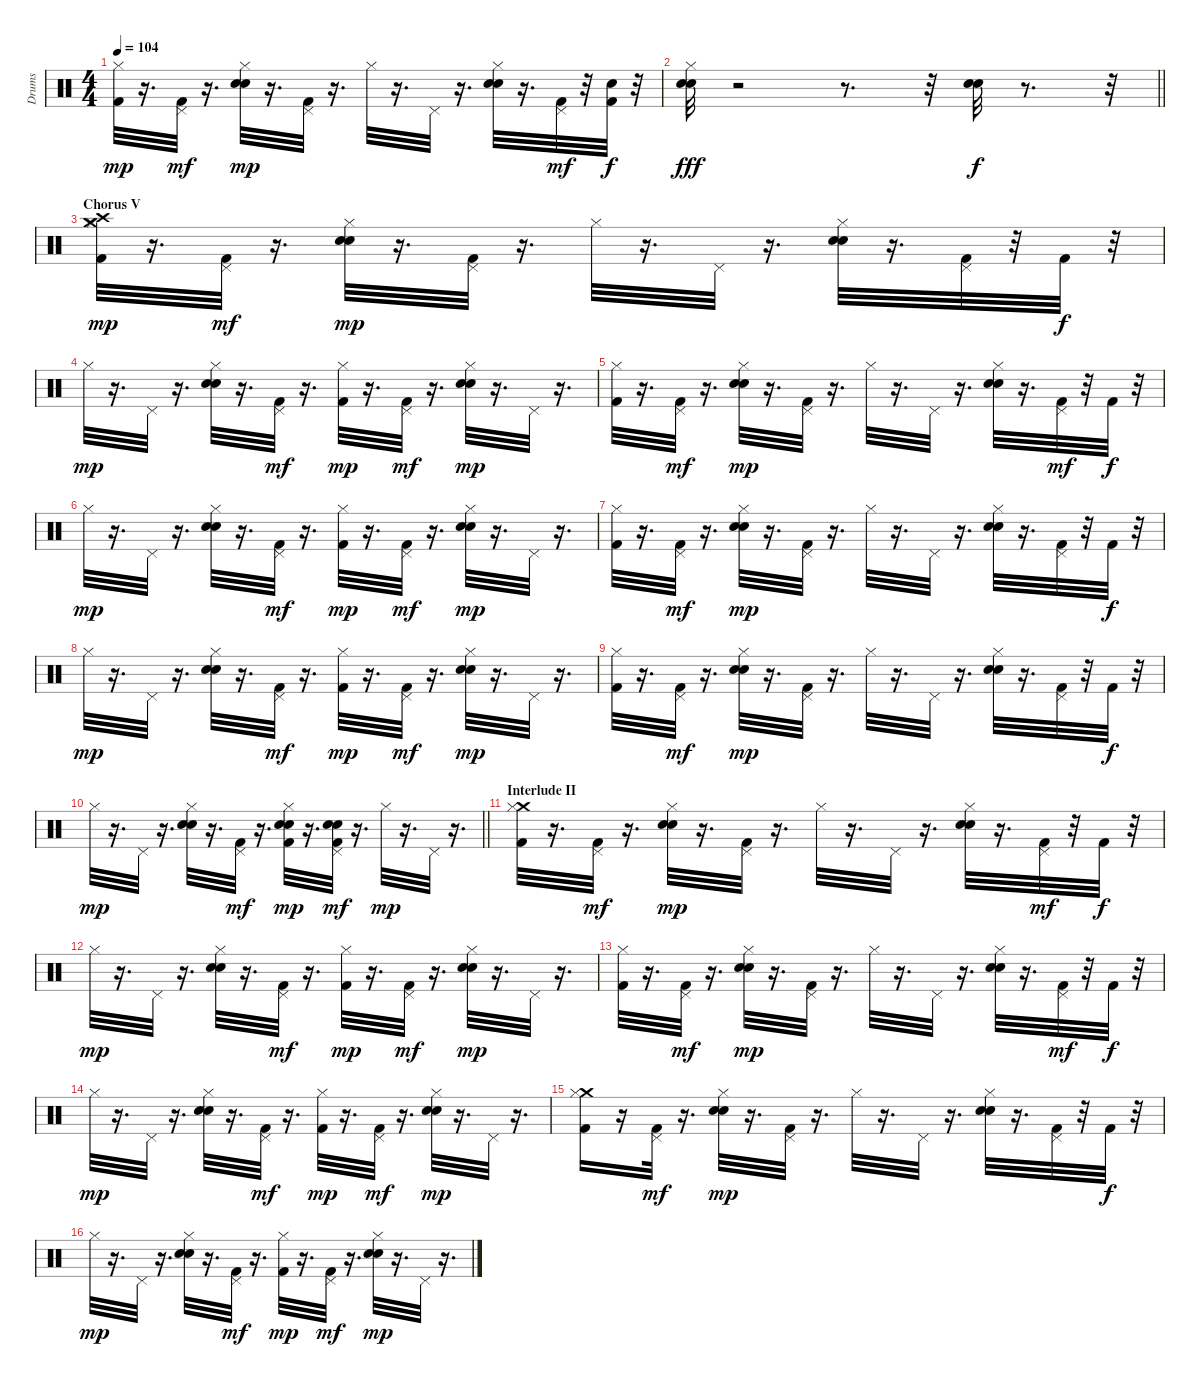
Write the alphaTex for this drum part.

\track ("Drums" "Drums") {instrument percussion}
\staff {score}
\articulation defaults
\ts (4 4)
\tempo 104
\clef neutral
\ks c
("Hi-Hat (closed)" "Kick (hit) 2").32{dy mp} r.16{d} ("Pedal Hi-Hat (hit)" "Kick (hit) 2").32{dy mf} r.16{d} ("Hi-Hat (closed)" "Electric Snare (hit)" "Hand Clap (hit)").32{dy mp} r.16{d} ("Pedal Hi-Hat (hit)" "Kick (hit) 2").32 r.16{d} "Hi-Hat (closed)".32 r.16{d} "Pedal Hi-Hat (hit)".32 r.16{d} ("Hi-Hat (closed)" "Electric Snare (hit)" "Hand Clap (hit)").32 r.16{d} ("Pedal Hi-Hat (hit)" "Kick (hit) 2").32{dy mf} r.32 ("Electric Snare (hit)" "Kick (hit) 2").32{dy f} r.32 |
\barLineRight lightlight
("Hi-Hat (closed)" "Electric Snare (hit)" "Hand Clap (hit)").32{dy fff} r.2 r.8{d} r.32 ("Electric Snare (hit)" "Hand Clap (hit)").32{dy f} r.8{d} r.32 |
\section ("" "Chorus V")
("Crash high (hit)" "Crash medium (hit)" "Hi-Hat (closed)" "Kick (hit) 2").32{dy mp} r.16{d} ("Pedal Hi-Hat (hit)" "Kick (hit) 2").32{dy mf} r.16{d} ("Hi-Hat (closed)" "Electric Snare (hit)" "Hand Clap (hit)").32{dy mp} r.16{d} ("Pedal Hi-Hat (hit)" "Kick (hit) 2").32 r.16{d} "Hi-Hat (closed)".32 r.16{d} "Pedal Hi-Hat (hit)".32 r.16{d} ("Hi-Hat (closed)" "Electric Snare (hit)" "Hand Clap (hit)").32 r.16{d} ("Pedal Hi-Hat (hit)" "Kick (hit) 2").32 r.32 "Kick (hit) 2".32{dy f} r.32 |
"Hi-Hat (closed)".32{dy mp} r.16{d} "Pedal Hi-Hat (hit)".32 r.16{d} ("Hi-Hat (closed)" "Electric Snare (hit)" "Hand Clap (hit)").32 r.16{d} ("Pedal Hi-Hat (hit)" "Kick (hit) 2").32{dy mf} r.16{d} ("Hi-Hat (closed)" "Kick (hit) 2").32{dy mp} r.16{d} ("Pedal Hi-Hat (hit)" "Kick (hit) 2").32{dy mf} r.16{d} ("Hi-Hat (closed)" "Electric Snare (hit)" "Hand Clap (hit)").32{dy mp} r.16{d} "Pedal Hi-Hat (hit)".32 r.16{d} |
("Hi-Hat (closed)" "Kick (hit) 2").32 r.16{d} ("Pedal Hi-Hat (hit)" "Kick (hit) 2").32{dy mf} r.16{d} ("Hi-Hat (closed)" "Electric Snare (hit)" "Hand Clap (hit)").32{dy mp} r.16{d} ("Pedal Hi-Hat (hit)" "Kick (hit) 2").32 r.16{d} "Hi-Hat (closed)".32 r.16{d} "Pedal Hi-Hat (hit)".32 r.16{d} ("Hi-Hat (closed)" "Electric Snare (hit)" "Hand Clap (hit)").32 r.16{d} ("Pedal Hi-Hat (hit)" "Kick (hit) 2").32{dy mf} r.32 "Kick (hit) 2".32{dy f} r.32 |
"Hi-Hat (closed)".32{dy mp} r.16{d} "Pedal Hi-Hat (hit)".32 r.16{d} ("Hi-Hat (closed)" "Electric Snare (hit)" "Hand Clap (hit)").32 r.16{d} ("Pedal Hi-Hat (hit)" "Kick (hit) 2").32{dy mf} r.16{d} ("Hi-Hat (closed)" "Kick (hit) 2").32{dy mp} r.16{d} ("Pedal Hi-Hat (hit)" "Kick (hit) 2").32{dy mf} r.16{d} ("Hi-Hat (closed)" "Electric Snare (hit)" "Hand Clap (hit)").32{dy mp} r.16{d} "Pedal Hi-Hat (hit)".32 r.16{d} |
("Hi-Hat (closed)" "Kick (hit) 2").32 r.16{d} ("Pedal Hi-Hat (hit)" "Kick (hit) 2").32{dy mf} r.16{d} ("Hi-Hat (closed)" "Electric Snare (hit)" "Hand Clap (hit)").32{dy mp} r.16{d} ("Pedal Hi-Hat (hit)" "Kick (hit) 2").32 r.16{d} "Hi-Hat (closed)".32 r.16{d} "Pedal Hi-Hat (hit)".32 r.16{d} ("Hi-Hat (closed)" "Electric Snare (hit)" "Hand Clap (hit)").32 r.16{d} ("Pedal Hi-Hat (hit)" "Kick (hit) 2").32 r.32 "Kick (hit) 2".32{dy f} r.32 |
"Hi-Hat (closed)".32{dy mp} r.16{d} "Pedal Hi-Hat (hit)".32 r.16{d} ("Hi-Hat (closed)" "Electric Snare (hit)" "Hand Clap (hit)").32 r.16{d} ("Pedal Hi-Hat (hit)" "Kick (hit) 2").32{dy mf} r.16{d} ("Hi-Hat (closed)" "Kick (hit) 2").32{dy mp} r.16{d} ("Pedal Hi-Hat (hit)" "Kick (hit) 2").32{dy mf} r.16{d} ("Hi-Hat (closed)" "Electric Snare (hit)" "Hand Clap (hit)").32{dy mp} r.16{d} "Pedal Hi-Hat (hit)".32 r.16{d} |
("Hi-Hat (closed)" "Kick (hit) 2").32 r.16{d} ("Pedal Hi-Hat (hit)" "Kick (hit) 2").32{dy mf} r.16{d} ("Hi-Hat (closed)" "Electric Snare (hit)" "Hand Clap (hit)").32{dy mp} r.16{d} ("Pedal Hi-Hat (hit)" "Kick (hit) 2").32 r.16{d} "Hi-Hat (closed)".32 r.16{d} "Pedal Hi-Hat (hit)".32 r.16{d} ("Hi-Hat (closed)" "Electric Snare (hit)" "Hand Clap (hit)").32 r.16{d} ("Pedal Hi-Hat (hit)" "Kick (hit) 2").32 r.32 "Kick (hit) 2".32{dy f} r.32 |
\barLineRight lightlight "Hi-Hat (closed)".32{dy mp}
r.16{d} "Pedal Hi-Hat (hit)".32 r.16{d} ("Hi-Hat (closed)" "Electric Snare (hit)" "Hand Clap (hit)").32 r.16{d} ("Pedal Hi-Hat (hit)" "Kick (hit) 2").32{dy mf} r.16{d} ("Hi-Hat (closed)" "Kick (hit) 2" "Hand Clap (hit)" "Electric Snare (hit)").32{dy mp} r.16{d} ("Pedal Hi-Hat (hit)" "Kick (hit) 2" "Hand Clap (hit)" "Electric Snare (hit)").32{dy mf} r.16{d} "Hi-Hat (closed)".32{dy mp} r.16{d} "Pedal Hi-Hat (hit)".32 r.16{d} |
\section ("" "Interlude II")
("Crash medium (hit)" "Hi-Hat (closed)" "Kick (hit) 2").32 r.16{d} ("Pedal Hi-Hat (hit)" "Kick (hit) 2").32{dy mf} r.16{d} ("Hi-Hat (closed)" "Electric Snare (hit)" "Hand Clap (hit)").32{dy mp} r.16{d} ("Pedal Hi-Hat (hit)" "Kick (hit) 2").32 r.16{d} "Hi-Hat (closed)".32 r.16{d} "Pedal Hi-Hat (hit)".32 r.16{d} ("Hi-Hat (closed)" "Electric Snare (hit)" "Hand Clap (hit)").32 r.16{d} ("Pedal Hi-Hat (hit)" "Kick (hit) 2").32{dy mf} r.32 "Kick (hit) 2".32{dy f} r.32 |
"Hi-Hat (closed)".32{dy mp} r.16{d} "Pedal Hi-Hat (hit)".32 r.16{d} ("Hi-Hat (closed)" "Electric Snare (hit)" "Hand Clap (hit)").32 r.16{d} ("Pedal Hi-Hat (hit)" "Kick (hit) 2").32{dy mf} r.16{d} ("Hi-Hat (closed)" "Kick (hit) 2").32{dy mp} r.16{d} ("Pedal Hi-Hat (hit)" "Kick (hit) 2").32{dy mf} r.16{d} ("Hi-Hat (closed)" "Electric Snare (hit)" "Hand Clap (hit)").32{dy mp} r.16{d} "Pedal Hi-Hat (hit)".32 r.16{d} |
("Hi-Hat (closed)" "Kick (hit) 2").32 r.16{d} ("Pedal Hi-Hat (hit)" "Kick (hit) 2").32{dy mf} r.16{d} ("Hi-Hat (closed)" "Electric Snare (hit)" "Hand Clap (hit)").32{dy mp} r.16{d} ("Pedal Hi-Hat (hit)" "Kick (hit) 2").32 r.16{d} "Hi-Hat (closed)".32 r.16{d} "Pedal Hi-Hat (hit)".32 r.16{d} ("Hi-Hat (closed)" "Electric Snare (hit)" "Hand Clap (hit)").32 r.16{d} ("Pedal Hi-Hat (hit)" "Kick (hit) 2").32{dy mf} r.32 "Kick (hit) 2".32{dy f} r.32 |
"Hi-Hat (closed)".32{dy mp} r.16{d} "Pedal Hi-Hat (hit)".32 r.16{d} ("Hi-Hat (closed)" "Electric Snare (hit)" "Hand Clap (hit)").32 r.16{d} ("Pedal Hi-Hat (hit)" "Kick (hit) 2").32{dy mf} r.16{d} ("Hi-Hat (closed)" "Kick (hit) 2").32{dy mp} r.16{d} ("Pedal Hi-Hat (hit)" "Kick (hit) 2").32{dy mf} r.16{d} ("Hi-Hat (closed)" "Electric Snare (hit)" "Hand Clap (hit)").32{dy mp} r.16{d} "Pedal Hi-Hat (hit)".32 r.16{d} |
("Crash medium (hit)" "Hi-Hat (closed)" "Kick (hit) 2").16 r.16 ("Pedal Hi-Hat (hit)" "Kick (hit) 2").32{dy mf} r.16{d} ("Hi-Hat (closed)" "Electric Snare (hit)" "Hand Clap (hit)").32{dy mp} r.16{d} ("Pedal Hi-Hat (hit)" "Kick (hit) 2").32 r.16{d} "Hi-Hat (closed)".32 r.16{d} "Pedal Hi-Hat (hit)".32 r.16{d} ("Hi-Hat (closed)" "Electric Snare (hit)" "Hand Clap (hit)").32 r.16{d} ("Pedal Hi-Hat (hit)" "Kick (hit) 2").32 r.32 "Kick (hit) 2".32{dy f} r.32 |
"Hi-Hat (closed)".32{dy mp} r.16{d} "Pedal Hi-Hat (hit)".32 r.16{d} ("Hi-Hat (closed)" "Electric Snare (hit)" "Hand Clap (hit)").32 r.16{d} ("Pedal Hi-Hat (hit)" "Kick (hit) 2").32{dy mf} r.16{d} ("Hi-Hat (closed)" "Kick (hit) 2").32{dy mp} r.16{d} ("Pedal Hi-Hat (hit)" "Kick (hit) 2").32{dy mf} r.16{d} ("Hi-Hat (closed)" "Electric Snare (hit)" "Hand Clap (hit)").32{dy mp} r.16{d} "Pedal Hi-Hat (hit)".32 r.16{d}
